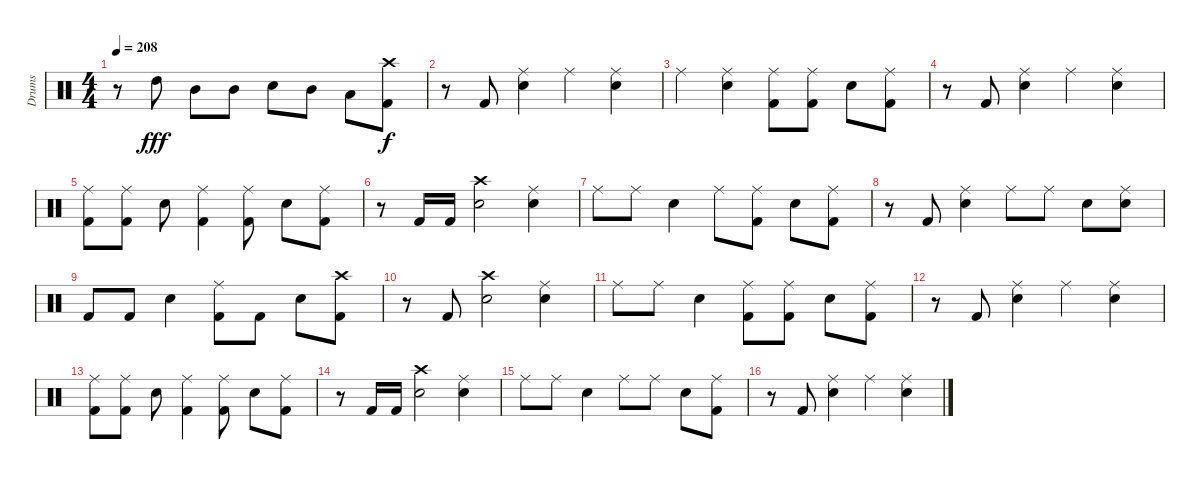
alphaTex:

\track ("Drums" "Drums") {instrument percussion}
\staff {score}
\articulation defaults
\ts (4 4)
\tempo 208
\clef neutral
\ks c
r.8{dy f} "High Tom (hit)".8{dy fff} "Mid Tom (hit)".8 "Mid Tom (hit)".8 "Electric Snare (hit)".8 "Mid Tom (hit)".8 "Low Tom (hit)".8 ("Crash high (hit)" "Kick (hit) 2").8{dy f} |
r.8 "Kick (hit) 2".8 ("Ride (middle)" "Electric Snare (hit)").4 "Ride (middle)".4 ("Ride (middle)" "Electric Snare (hit)").4 |
"Ride (middle)".4 ("Ride (middle)" "Electric Snare (hit)").4 ("Ride (middle)" "Kick (hit) 2").8 ("Ride (middle)" "Kick (hit) 2").8 "Electric Snare (hit)".8 ("Ride (middle)" "Kick (hit) 2").8 |
r.8 "Kick (hit) 2".8 ("Ride (middle)" "Electric Snare (hit)").4 "Ride (middle)".4 ("Ride (middle)" "Electric Snare (hit)").4 |
("Ride (middle)" "Kick (hit) 2").8 ("Ride (middle)" "Kick (hit) 2").8 "Electric Snare (hit)".8 ("Ride (middle)" "Kick (hit) 2").4 ("Ride (middle)" "Kick (hit) 2").8 "Electric Snare (hit)".8 ("Ride (middle)" "Kick (hit) 2").8 |
r.8 "Kick (hit) 2".16 "Kick (hit) 2".16 ("Crash high (hit)" "Electric Snare (hit)").2 ("Ride (middle)" "Electric Snare (hit)").4 |
"Ride (middle)".8 "Ride (middle)".8 "Electric Snare (hit)".4 "Ride (middle)".8 ("Ride (middle)" "Kick (hit) 2").8 "Electric Snare (hit)".8 ("Ride (middle)" "Kick (hit) 2").8 |
r.8 "Kick (hit) 2".8 ("Ride (middle)" "Electric Snare (hit)").4 "Ride (middle)".8 "Ride (middle)".8 "Electric Snare (hit)".8 ("Ride (middle)" "Electric Snare (hit)").8 |
"Kick (hit) 2".8 "Kick (hit) 2".8 "Electric Snare (hit)".4 ("Ride (middle)" "Kick (hit) 2").8 "Kick (hit) 2".8 "Electric Snare (hit)".8 ("Crash high (hit)" "Kick (hit) 2").8 |
r.8 "Kick (hit) 2".8 ("Crash high (hit)" "Electric Snare (hit)").2 ("Ride (middle)" "Electric Snare (hit)").4 |
"Ride (middle)".8 "Ride (middle)".8 "Electric Snare (hit)".4 ("Ride (middle)" "Kick (hit) 2").8 ("Ride (middle)" "Kick (hit) 2").8 "Electric Snare (hit)".8 ("Ride (middle)" "Kick (hit) 2").8 |
r.8 "Kick (hit) 2".8 ("Ride (middle)" "Electric Snare (hit)").4 "Ride (middle)".4 ("Ride (middle)" "Electric Snare (hit)").4 |
("Ride (middle)" "Kick (hit) 2").8 ("Ride (middle)" "Kick (hit) 2").8 "Electric Snare (hit)".8 ("Ride (middle)" "Kick (hit) 2").4 ("Ride (middle)" "Kick (hit) 2").8 "Electric Snare (hit)".8 ("Ride (middle)" "Kick (hit) 2").8 |
r.8 "Kick (hit) 2".16 "Kick (hit) 2".16 ("Crash high (hit)" "Electric Snare (hit)").2 ("Ride (middle)" "Electric Snare (hit)").4 |
"Ride (middle)".8 "Ride (middle)".8 "Electric Snare (hit)".4 "Ride (middle)".8 "Ride (middle)".8 "Electric Snare (hit)".8 ("Ride (middle)" "Kick (hit) 2").8 |
r.8 "Kick (hit) 2".8 ("Ride (middle)" "Electric Snare (hit)").4 "Ride (middle)".4 ("Ride (middle)" "Electric Snare (hit)").4
